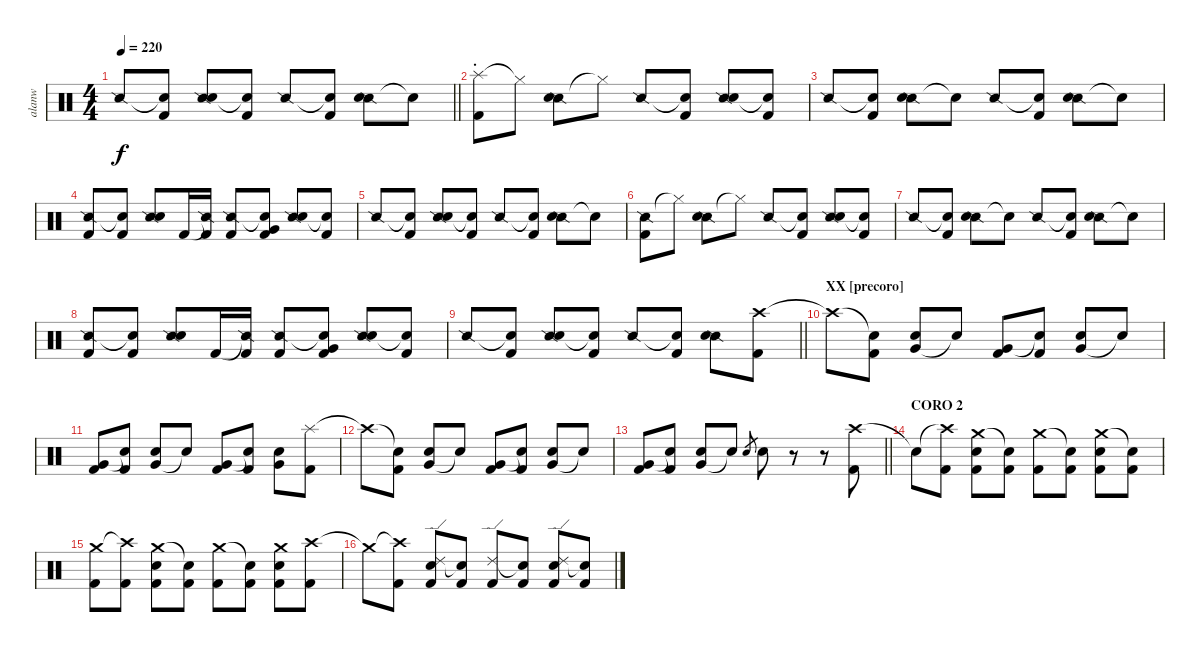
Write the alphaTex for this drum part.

\track ("alanw" "alanw") {instrument percussion}
\staff {score}
\articulation defaults
\ts (4 4)
\tempo 220
\clef neutral
\barLineRight lightlight
\ks c "Snare (side stick) 2".8{dy f}
("Snare (hit)"{t} "Kick (hit) 2").8 ("Snare (side stick) 2" "Electric Snare (hit)").8 ("Snare (hit)"{t} "Kick (hit) 2").8 "Snare (side stick) 2".8 ("Snare (hit)"{t} "Kick (hit) 2").8 ("Snare (side stick) 2" "Electric Snare (hit)").8 "Snare (hit)"{t}.8 |
\section ("" ".")
("Splash (hit)" "Kick (hit) 2").8 "Hi-Hat (closed)"{t}.8 ("Snare (side stick) 2" "Electric Snare (hit)").8 "Hi-Hat (closed)"{t}.8 "Snare (side stick) 2".8 ("Snare (hit)"{t} "Kick (hit) 2").8 ("Snare (side stick) 2" "Electric Snare (hit)").8 ("Snare (hit)"{t} "Kick (hit) 2").8 |
"Snare (side stick) 2".8 ("Snare (hit)"{t} "Kick (hit) 2").8 ("Snare (side stick) 2" "Electric Snare (hit)").8 "Snare (hit)"{t}.8 "Snare (side stick) 2".8 ("Snare (hit)"{t} "Kick (hit) 2").8 ("Snare (side stick) 2" "Electric Snare (hit)").8 "Snare (hit)"{t}.8 |
("Snare (side stick) 2" "Kick (hit) 2").8 ("Snare (hit)"{t} "Kick (hit) 2").8 ("Snare (side stick) 2" "Electric Snare (hit)").8 "Kick (hit) 2".16 ("Snare (side stick) 2"{t} "Kick (hit) 2").16 ("Snare (side stick) 2" "Kick (hit) 2").8 ("Snare (hit)"{t} "Very Low Tom (hit)" "Kick (hit) 2").8 ("Snare (side stick) 2" "Electric Snare (hit)").8 ("Snare (hit)"{t} "Kick (hit) 2").8 |
"Snare (side stick) 2".8 ("Snare (hit)"{t} "Kick (hit) 2").8 ("Snare (side stick) 2" "Electric Snare (hit)").8 ("Snare (hit)"{t} "Kick (hit) 2").8 "Snare (side stick) 2".8 ("Snare (hit)"{t} "Kick (hit) 2").8 ("Snare (side stick) 2" "Electric Snare (hit)").8 "Snare (hit)"{t}.8 |
("Snare (side stick) 2" "Kick (hit) 2").8 "Hi-Hat (closed)"{t}.8 ("Snare (side stick) 2" "Electric Snare (hit)").8 "Hi-Hat (closed)"{t}.8 "Snare (side stick) 2".8 ("Snare (hit)"{t} "Kick (hit) 2").8 ("Snare (side stick) 2" "Electric Snare (hit)").8 ("Snare (hit)"{t} "Kick (hit) 2").8 |
"Snare (side stick) 2".8 ("Snare (hit)"{t} "Kick (hit) 2").8 ("Snare (side stick) 2" "Electric Snare (hit)").8 "Snare (hit)"{t}.8 "Snare (side stick) 2".8 ("Snare (hit)"{t} "Kick (hit) 2").8 ("Snare (side stick) 2" "Electric Snare (hit)").8 "Snare (hit)"{t}.8 |
("Snare (side stick) 2" "Kick (hit) 2").8 ("Snare (hit)"{t} "Kick (hit) 2").8 ("Snare (side stick) 2" "Electric Snare (hit)").8 "Kick (hit) 2".16 ("Snare (side stick) 2"{t} "Kick (hit) 2").16 ("Snare (side stick) 2" "Kick (hit) 2").8 ("Snare (hit)"{t} "Very Low Tom (hit)" "Kick (hit) 2").8 ("Snare (side stick) 2" "Electric Snare (hit)").8 ("Snare (hit)"{t} "Kick (hit) 2").8 |
\barLineRight lightlight "Snare (side stick) 2".8
("Snare (hit)"{t} "Kick (hit) 2").8 ("Snare (side stick) 2" "Electric Snare (hit)").8 ("Snare (hit)"{t} "Kick (hit) 2").8 "Snare (side stick) 2".8 ("Snare (hit)"{t} "Kick (hit) 2").8 ("Snare (side stick) 2" "Electric Snare (hit)").8 ("Crash high (hit)" "Kick (hit) 2").8 |
\section ("" "XX [precoro]")
"Crash high (hit)"{t}.8 ("Snare (hit)"{t} "Kick (hit) 2").8 ("Very Low Tom (hit)" "Electric Snare (hit)").8 "Snare (hit)"{t}.8 ("Very Low Tom (hit)" "Kick (hit) 2").8 ("Snare (hit)"{t} "Kick (hit) 2").8 ("Very Low Tom (hit)" "Electric Snare (hit)").8 "Snare (hit)"{t}.8 |
("Very Low Tom (hit)" "Kick (hit) 2").8 ("Snare (hit)"{t} "Kick (hit) 2").8 ("Very Low Tom (hit)" "Electric Snare (hit)").8 "Snare (hit)"{t}.8 ("Very Low Tom (hit)" "Kick (hit) 2").8 ("Snare (hit)"{t} "Kick (hit) 2").8 ("Very Low Tom (hit)" "Electric Snare (hit)").8 ("Splash (hit)" "Kick (hit) 2").8 |
"Crash high (hit)"{t}.8 ("Snare (hit)"{t} "Kick (hit) 2").8 ("Very Low Tom (hit)" "Electric Snare (hit)").8 "Snare (hit)"{t}.8 ("Very Low Tom (hit)" "Kick (hit) 2").8 ("Snare (hit)"{t} "Kick (hit) 2").8 ("Very Low Tom (hit)" "Electric Snare (hit)").8 "Snare (hit)"{t}.8 |
\barLineRight lightlight
("Very Low Tom (hit)" "Kick (hit) 2").8 ("Snare (hit)"{t} "Kick (hit) 2").8 ("Very Low Tom (hit)" "Electric Snare (hit)").8 "Snare (hit)"{t}.8 "Electric Snare (hit)".8{gr} "Electric Snare (hit)".8 r.8 r.8 ("Crash high (hit)" "Kick (hit) 2").8 |
\section ("" "CORO 2")
"Snare (hit)"{t}.8 ("Crash high (hit)"{t} "Kick (hit) 2").8 ("Crash medium (hit)" "Electric Snare (hit)" "Kick (hit) 2").8 ("Snare (hit)"{t} "Kick (hit) 2").8 ("Crash medium (hit)" "Kick (hit) 2").8 ("Snare (hit)"{t} "Kick (hit) 2").8 ("Crash medium (hit)" "Electric Snare (hit)" "Kick (hit) 2").8 ("Snare (hit)"{t} "Kick (hit) 2").8 |
("Crash medium (hit)" "Kick (hit) 2").8 ("Crash high (hit)"{t} "Kick (hit) 2").8 ("Crash medium (hit)" "Electric Snare (hit)" "Kick (hit) 2").8 ("Snare (hit)"{t} "Kick (hit) 2").8 ("Crash medium (hit)" "Kick (hit) 2").8 ("Snare (hit)"{t} "Kick (hit) 2").8 ("Crash medium (hit)" "Electric Snare (hit)" "Kick (hit) 2").8 ("Crash high (hit)" "Kick (hit) 2").8 |
"Crash medium (hit)"{t}.8 ("Crash high (hit)"{t} "Kick (hit) 2").8 ("Ride (edge) 2" "Electric Snare (hit)" "Kick (hit) 2").8 ("Snare (hit)"{t} "Kick (hit) 2").8 ("Ride (edge) 2" "Kick (hit) 2").8 ("Snare (hit)"{t} "Kick (hit) 2").8 ("Ride (edge) 2" "Electric Snare (hit)" "Kick (hit) 2").8 ("Snare (hit)"{t} "Kick (hit) 2").8
